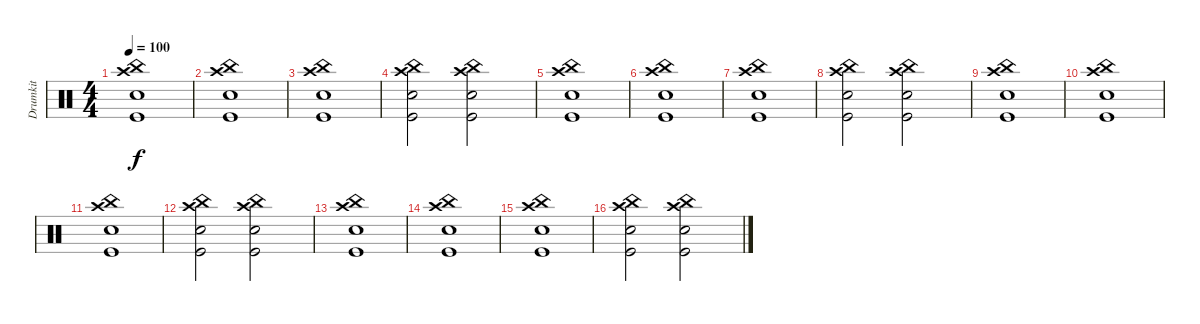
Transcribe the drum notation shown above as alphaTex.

\track ("Drumkit" "Drumkit") {instrument percussion}
\staff {score}
\articulation defaults
\ts (4 4)
\tempo 100
\clef neutral
\ks c
("Snare (hit) 2" "Kick (hit)" "Crash high (hit)" "China (hit)").1{dy f} |
("Snare (hit) 2" "Kick (hit)" "Crash high (hit)" "China (hit)").1 |
("Snare (hit) 2" "Kick (hit)" "Crash high (hit)" "China (hit)").1 |
("Snare (hit) 2" "Kick (hit)" "Crash high (hit)" "China (hit)").2 ("Snare (hit) 2" "Kick (hit)" "Crash high (hit)" "China (hit)").2 |
("Snare (hit) 2" "Kick (hit)" "Crash high (hit)" "China (hit)").1 |
("Snare (hit) 2" "Kick (hit)" "Crash high (hit)" "China (hit)").1 |
("Snare (hit) 2" "Kick (hit)" "Crash high (hit)" "China (hit)").1 |
("Snare (hit) 2" "Kick (hit)" "Crash high (hit)" "China (hit)").2 ("Snare (hit) 2" "Kick (hit)" "Crash high (hit)" "China (hit)").2 |
("Snare (hit) 2" "Kick (hit)" "Crash high (hit)" "China (hit)").1 |
("Snare (hit) 2" "Kick (hit)" "Crash high (hit)" "China (hit)").1 |
("Snare (hit) 2" "Kick (hit)" "Crash high (hit)" "China (hit)").1 |
("Snare (hit) 2" "Kick (hit)" "Crash high (hit)" "China (hit)").2 ("Snare (hit) 2" "Kick (hit)" "Crash high (hit)" "China (hit)").2 |
("Snare (hit) 2" "Kick (hit)" "Crash high (hit)" "China (hit)").1 |
("Snare (hit) 2" "Kick (hit)" "Crash high (hit)" "China (hit)").1 |
("Snare (hit) 2" "Kick (hit)" "Crash high (hit)" "China (hit)").1 |
("Snare (hit) 2" "Kick (hit)" "Crash high (hit)" "China (hit)").2 ("Snare (hit) 2" "Kick (hit)" "Crash high (hit)" "China (hit)").2
